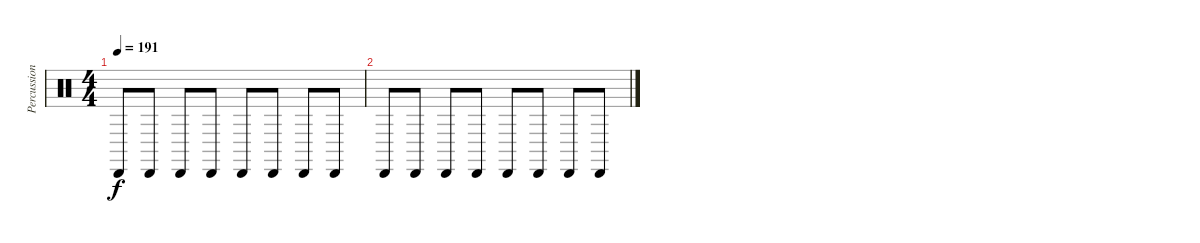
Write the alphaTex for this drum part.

\track ("Percussion" "Percussion") {instrument percussion}
\staff {score}
\articulation defaults
\ts (4 4)
\tempo 191
\clef neutral
\ks c "Cabasa (hit)".8{dy f} "Cabasa (hit)".8 "Cabasa (hit)".8 "Cabasa (hit)".8 "Cabasa (hit)".8 "Cabasa (hit)".8 "Cabasa (hit)".8 "Cabasa (hit)".8
|
"Cabasa (hit)".8 "Cabasa (hit)".8 "Cabasa (hit)".8 "Cabasa (hit)".8 "Cabasa (hit)".8 "Cabasa (hit)".8 "Cabasa (hit)".8 "Cabasa (hit)".8
